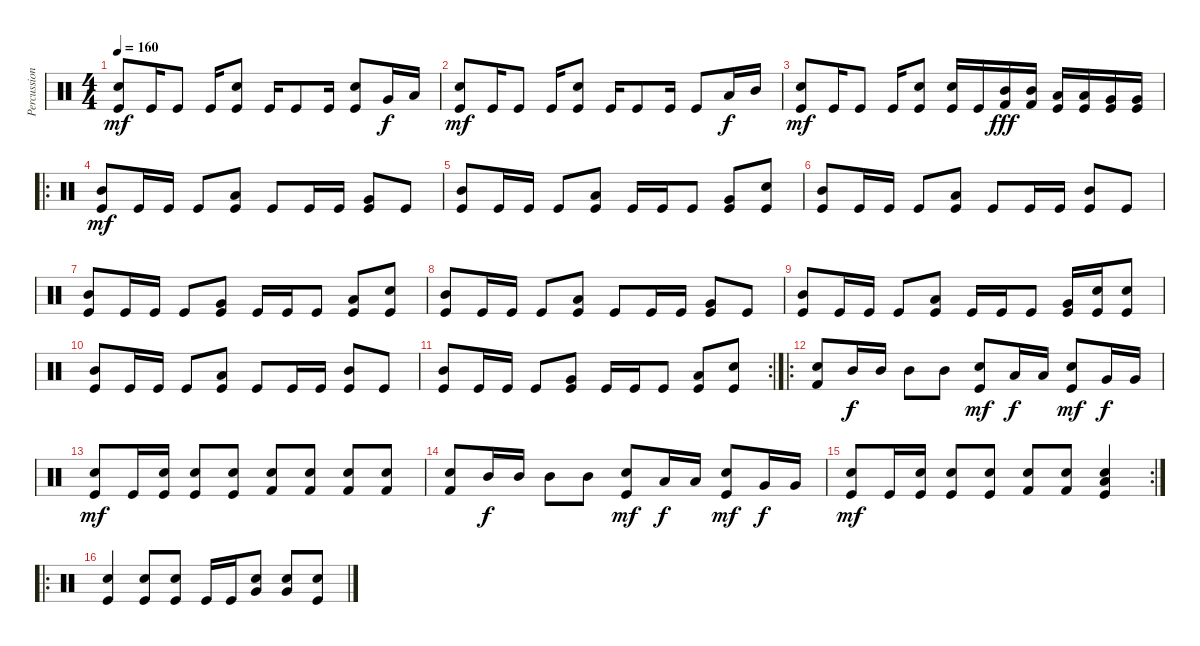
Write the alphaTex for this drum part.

\track ("Percussion" "Percussion") {instrument percussion}
\staff {score}
\articulation defaults
\ts (4 4)
\tempo 160
\clef neutral
\ks c
("Kick (hit)" "Electric Snare (hit)").8{dy mf} "Kick (hit)".16 "Kick (hit)".8 "Kick (hit)".16 ("Kick (hit)" "Snare (hit) 2").8 "Kick (hit)".16 "Kick (hit)".8 "Kick (hit)".16 ("Kick (hit)" "Snare (hit) 2").8 "Very Low Tom (hit)".16{dy f} "Low Tom (hit)".16 |
("Kick (hit)" "Electric Snare (hit)").8{dy mf} "Kick (hit)".16 "Kick (hit)".8 "Kick (hit)".16 ("Kick (hit)" "Snare (hit) 2").8 "Kick (hit)".16 "Kick (hit)".8 "Kick (hit)".16 "Kick (hit)".8 "Low Tom (hit)".16{dy f} "Mid Tom (hit)".16 |
("Kick (hit)" "Electric Snare (hit)").8{dy mf} "Kick (hit)".16 "Kick (hit)".8 "Kick (hit)".16 ("Kick (hit)" "Snare (hit) 2").8 ("Kick (hit)" "Electric Snare (hit)").16 "Kick (hit)".16 ("Mid Tom (hit)" "Kick (hit) 2").16{dy fff} ("Mid Tom (hit)" "Kick (hit) 2").16 ("Low Tom (hit)" "Kick (hit)").16 ("Low Tom (hit)" "Kick (hit)").16 ("Very Low Tom (hit)" "Kick (hit)").16 ("Very Low Tom (hit)" "Kick (hit)").16 |
\ro
("Kick (hit)" "Mid Tom (hit)").8{dy mf} "Kick (hit)".16 "Kick (hit)".16 "Kick (hit)".8 ("Kick (hit)" "Low Tom (hit)").8 "Kick (hit)".8 "Kick (hit)".16 "Kick (hit)".16 ("Kick (hit)" "Very Low Tom (hit)").8 "Kick (hit)".8 |
("Kick (hit)" "Mid Tom (hit)").8 "Kick (hit)".16 "Kick (hit)".16 "Kick (hit)".8 ("Kick (hit)" "Low Tom (hit)").8 "Kick (hit)".16 "Kick (hit)".16 "Kick (hit)".8 ("Kick (hit)" "Very Low Tom (hit)").8 ("Kick (hit)" "Electric Snare (hit)").8 |
("Kick (hit)" "Mid Tom (hit)").8 "Kick (hit)".16 "Kick (hit)".16 "Kick (hit)".8 ("Kick (hit)" "Low Tom (hit)").8 "Kick (hit)".8 "Kick (hit)".16 "Kick (hit)".16 ("Kick (hit)" "Mid Tom (hit)").8 "Kick (hit)".8 |
("Kick (hit)" "Mid Tom (hit)").8 "Kick (hit)".16 "Kick (hit)".16 "Kick (hit)".8 ("Kick (hit)" "Very Low Tom (hit)").8 "Kick (hit)".16 "Kick (hit)".16 "Kick (hit)".8 ("Kick (hit)" "Low Tom (hit)").8 ("Kick (hit)" "Electric Snare (hit)").8 |
("Kick (hit)" "Mid Tom (hit)").8 "Kick (hit)".16 "Kick (hit)".16 "Kick (hit)".8 ("Kick (hit)" "Low Tom (hit)").8 "Kick (hit)".8 "Kick (hit)".16 "Kick (hit)".16 ("Kick (hit)" "Very Low Tom (hit)").8 "Kick (hit)".8 |
("Kick (hit)" "Mid Tom (hit)").8 "Kick (hit)".16 "Kick (hit)".16 "Kick (hit)".8 ("Kick (hit)" "Low Tom (hit)").8 "Kick (hit)".16 "Kick (hit)".16 "Kick (hit)".8 ("Kick (hit)" "Very Low Tom (hit)").16 ("Kick (hit)" "Electric Snare (hit)").16 ("Kick (hit)" "Snare (hit) 2").8 |
("Kick (hit)" "Mid Tom (hit)").8 "Kick (hit)".16 "Kick (hit)".16 "Kick (hit)".8 ("Kick (hit)" "Low Tom (hit)").8 "Kick (hit)".8 "Kick (hit)".16 "Kick (hit)".16 ("Kick (hit)" "Mid Tom (hit)").8 "Kick (hit)".8 |
\rc 2
("Kick (hit)" "Mid Tom (hit)").8 "Kick (hit)".16 "Kick (hit)".16 "Kick (hit)".8 ("Kick (hit)" "Very Low Tom (hit)").8 "Kick (hit)".16 "Kick (hit)".16 "Kick (hit)".8 ("Kick (hit)" "Low Tom (hit)").8 ("Kick (hit)" "Electric Snare (hit)").8 |
\ro
("Electric Snare (hit)" "Kick (hit) 2").8 "Mid Tom (hit)".16{dy f} "Mid Tom (hit)".16 "Mid Tom (hit)".8 "Mid Tom (hit)".8 ("Electric Snare (hit)" "Kick (hit)").8{dy mf} "Low Tom (hit)".16{dy f} "Low Tom (hit)".16 ("Snare (hit) 2" "Kick (hit)").8{dy mf} "Very Low Tom (hit)".16{dy f} "Very Low Tom (hit)".16 |
("Electric Snare (hit)" "Kick (hit)").8{dy mf} "Kick (hit)".16 ("Snare (hit) 2" "Kick (hit)").16 ("Snare (hit) 2" "Kick (hit)").8 ("Snare (hit) 2" "Kick (hit)").8 ("Snare (hit) 2" "Kick (hit) 2").8 ("Snare (hit) 2" "Kick (hit) 2").8 ("Snare (hit) 2" "Kick (hit) 2").8 ("Electric Snare (hit)" "Kick (hit) 2").8 |
("Electric Snare (hit)" "Kick (hit) 2").8 "Mid Tom (hit)".16{dy f} "Mid Tom (hit)".16 "Mid Tom (hit)".8 "Mid Tom (hit)".8 ("Electric Snare (hit)" "Kick (hit)").8{dy mf} "Low Tom (hit)".16{dy f} "Low Tom (hit)".16 ("Snare (hit) 2" "Kick (hit)").8{dy mf} "Very Low Tom (hit)".16{dy f} "Very Low Tom (hit)".16 |
\rc 2
("Electric Snare (hit)" "Kick (hit)").8{dy mf} "Kick (hit)".16 ("Snare (hit) 2" "Kick (hit)").16 ("Snare (hit) 2" "Kick (hit)").8 ("Snare (hit) 2" "Kick (hit)").8 ("Snare (hit) 2" "Kick (hit) 2").8 ("Snare (hit) 2" "Kick (hit) 2").8 ("Snare (hit) 2" "Kick (hit)" "Low Tom (hit)").4 |
\ro
("Snare (hit) 2" "Kick (hit)").4 ("Snare (hit) 2" "Kick (hit)").8 ("Snare (hit) 2" "Kick (hit)").8 "Kick (hit)".16 "Kick (hit)".16 ("Snare (hit) 2" "Very Low Tom (hit)").8 ("Snare (hit) 2" "Very Low Tom (hit)").8 ("Snare (hit) 2" "Kick (hit)").8
